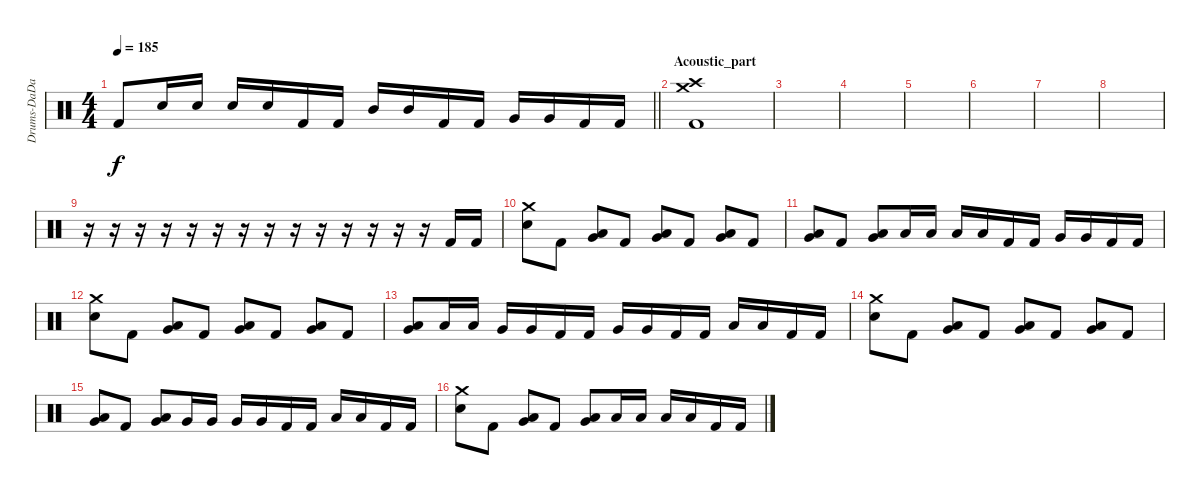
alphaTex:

\track ("Drums-DaDa" "Drums-DaDa") {instrument percussion}
\staff {score}
\articulation defaults
\ts (4 4)
\tempo 185
\clef neutral
\barLineRight lightlight
\ks c "Kick (hit) 2".8{dy f} "Electric Snare (hit)".16 "Electric Snare (hit)".16 "Electric Snare (hit)".16 "Electric Snare (hit)".16 "Kick (hit) 2".16 "Kick (hit) 2".16 "Mid Tom (hit)".16 "Mid Tom (hit)".16 "Kick (hit) 2".16 "Kick (hit) 2".16 "Very Low Tom (hit)".16 "Very Low Tom (hit)".16 "Kick (hit) 2".16 "Kick (hit) 2".16
|
\section ("" "Acoustic_part")
("Crash medium (hit)" "Crash high (hit)" "Kick (hit) 2").1 |
|
|
|
|
|
|
r.16 r.16 r.16 r.16 r.16 r.16 r.16 r.16 r.16 r.16 r.16 r.16 r.16 r.16 "Kick (hit) 2".16 "Kick (hit) 2".16 |
("Crash medium (hit)" "Electric Snare (hit)").8 "Kick (hit) 2".8 ("Low Floor Tom (hit)" "Very Low Tom (hit)").8 "Kick (hit) 2".8 ("Low Floor Tom (hit)" "Very Low Tom (hit)").8 "Kick (hit) 2".8 ("Low Floor Tom (hit)" "Very Low Tom (hit)").8 "Kick (hit) 2".8 |
("Low Floor Tom (hit)" "Very Low Tom (hit)").8 "Kick (hit) 2".8 ("Low Floor Tom (hit)" "Very Low Tom (hit)").8 "Low Tom (hit)".16 "Low Tom (hit)".16 "Low Tom (hit)".16 "Low Tom (hit)".16 "Kick (hit) 2".16 "Kick (hit) 2".16 "Very Low Tom (hit)".16 "Very Low Tom (hit)".16 "Kick (hit) 2".16 "Kick (hit) 2".16 |
("Crash medium (hit)" "Electric Snare (hit)").8 "Kick (hit) 2".8 ("Low Floor Tom (hit)" "Very Low Tom (hit)").8 "Kick (hit) 2".8 ("Low Floor Tom (hit)" "Very Low Tom (hit)").8 "Kick (hit) 2".8 ("Low Floor Tom (hit)" "Very Low Tom (hit)").8 "Kick (hit) 2".8 |
("Low Floor Tom (hit)" "Very Low Tom (hit)").8 "Low Tom (hit)".16 "Low Tom (hit)".16 "Very Low Tom (hit)".16 "Very Low Tom (hit)".16 "Kick (hit) 2".16 "Kick (hit) 2".16 "Very Low Tom (hit)".16 "Very Low Tom (hit)".16 "Kick (hit) 2".16 "Kick (hit) 2".16 "Low Floor Tom (hit)".16 "Low Floor Tom (hit)".16 "Kick (hit) 2".16 "Kick (hit) 2".16 |
("Crash medium (hit)" "Electric Snare (hit)").8 "Kick (hit) 2".8 ("Low Floor Tom (hit)" "Very Low Tom (hit)").8 "Kick (hit) 2".8 ("Low Floor Tom (hit)" "Very Low Tom (hit)").8 "Kick (hit) 2".8 ("Low Floor Tom (hit)" "Very Low Tom (hit)").8 "Kick (hit) 2".8 |
("Low Floor Tom (hit)" "Very Low Tom (hit)").8 "Kick (hit) 2".8 ("Low Floor Tom (hit)" "Very Low Tom (hit)").8 "Very Low Tom (hit)".16 "Very Low Tom (hit)".16 "Very Low Tom (hit)".16 "Very Low Tom (hit)".16 "Kick (hit) 2".16 "Kick (hit) 2".16 "Low Floor Tom (hit)".16 "Low Floor Tom (hit)".16 "Kick (hit) 2".16 "Kick (hit) 2".16 |
("Crash medium (hit)" "Electric Snare (hit)").8 "Kick (hit) 2".8 ("Low Floor Tom (hit)" "Very Low Tom (hit)").8 "Kick (hit) 2".8 ("Low Floor Tom (hit)" "Very Low Tom (hit)").8 "Low Tom (hit)".16 "Low Tom (hit)".16 "Low Tom (hit)".16 "Low Tom (hit)".16 "Kick (hit) 2".16 "Kick (hit) 2".16
